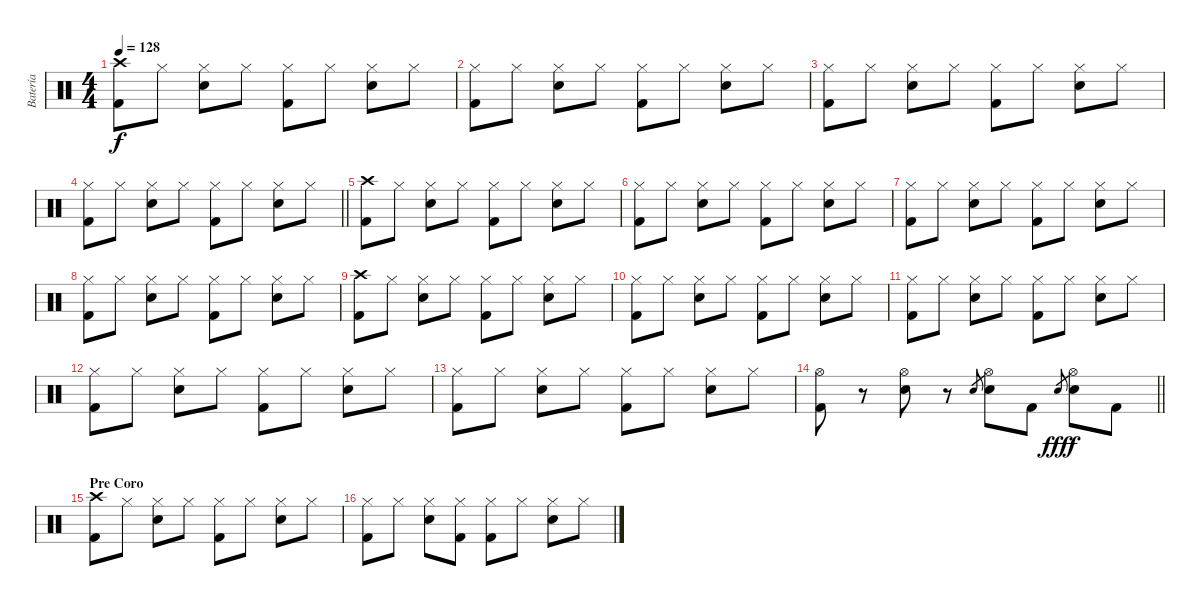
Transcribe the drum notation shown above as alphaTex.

\track ("Batería" "Batería") {instrument percussion}
\staff {score}
\articulation defaults
\ts (4 4)
\tempo 128
\clef neutral
\ks c
("Crash high (hit)" "Kick (hit) 2").8{dy f} "Hi-Hat (closed)".8 ("Hi-Hat (closed)" "Electric Snare (hit)").8 "Hi-Hat (closed)".8 ("Hi-Hat (closed)" "Kick (hit) 2").8 "Hi-Hat (closed)".8 ("Hi-Hat (closed)" "Electric Snare (hit)").8 "Hi-Hat (closed)".8 |
("Hi-Hat (closed)" "Kick (hit) 2").8 "Hi-Hat (closed)".8 ("Hi-Hat (closed)" "Electric Snare (hit)").8 "Hi-Hat (closed)".8 ("Hi-Hat (closed)" "Kick (hit) 2").8 "Hi-Hat (closed)".8 ("Hi-Hat (closed)" "Electric Snare (hit)").8 "Hi-Hat (closed)".8 |
("Hi-Hat (closed)" "Kick (hit) 2").8 "Hi-Hat (closed)".8 ("Hi-Hat (closed)" "Electric Snare (hit)").8 "Hi-Hat (closed)".8 ("Hi-Hat (closed)" "Kick (hit) 2").8 "Hi-Hat (closed)".8 ("Hi-Hat (closed)" "Electric Snare (hit)").8 "Hi-Hat (closed)".8 |
\barLineRight lightlight
("Hi-Hat (closed)" "Kick (hit) 2").8 "Hi-Hat (closed)".8 ("Hi-Hat (closed)" "Electric Snare (hit)").8 "Hi-Hat (closed)".8 ("Hi-Hat (closed)" "Kick (hit) 2").8 "Hi-Hat (closed)".8 ("Hi-Hat (closed)" "Electric Snare (hit)").8 "Hi-Hat (closed)".8 |
("Crash high (hit)" "Kick (hit) 2").8 "Hi-Hat (closed)".8 ("Hi-Hat (closed)" "Electric Snare (hit)").8 "Hi-Hat (closed)".8 ("Hi-Hat (closed)" "Kick (hit) 2").8 "Hi-Hat (closed)".8 ("Hi-Hat (closed)" "Electric Snare (hit)").8 "Hi-Hat (closed)".8 |
("Hi-Hat (closed)" "Kick (hit) 2").8 "Hi-Hat (closed)".8 ("Hi-Hat (closed)" "Electric Snare (hit)").8 "Hi-Hat (closed)".8 ("Hi-Hat (closed)" "Kick (hit) 2").8 "Hi-Hat (closed)".8 ("Hi-Hat (closed)" "Electric Snare (hit)").8 "Hi-Hat (closed)".8 |
("Hi-Hat (closed)" "Kick (hit) 2").8 "Hi-Hat (closed)".8 ("Hi-Hat (closed)" "Electric Snare (hit)").8 "Hi-Hat (closed)".8 ("Hi-Hat (closed)" "Kick (hit) 2").8 "Hi-Hat (closed)".8 ("Hi-Hat (closed)" "Electric Snare (hit)").8 "Hi-Hat (closed)".8 |
("Hi-Hat (closed)" "Kick (hit) 2").8 "Hi-Hat (closed)".8 ("Hi-Hat (closed)" "Electric Snare (hit)").8 "Hi-Hat (closed)".8 ("Hi-Hat (closed)" "Kick (hit) 2").8 "Hi-Hat (closed)".8 ("Hi-Hat (closed)" "Electric Snare (hit)").8 "Hi-Hat (closed)".8 |
("Crash high (hit)" "Kick (hit) 2").8 "Hi-Hat (closed)".8 ("Hi-Hat (closed)" "Electric Snare (hit)").8 "Hi-Hat (closed)".8 ("Hi-Hat (closed)" "Kick (hit) 2").8 "Hi-Hat (closed)".8 ("Hi-Hat (closed)" "Electric Snare (hit)").8 "Hi-Hat (closed)".8 |
("Hi-Hat (closed)" "Kick (hit) 2").8 "Hi-Hat (closed)".8 ("Hi-Hat (closed)" "Electric Snare (hit)").8 "Hi-Hat (closed)".8 ("Hi-Hat (closed)" "Kick (hit) 2").8 "Hi-Hat (closed)".8 ("Hi-Hat (closed)" "Electric Snare (hit)").8 "Hi-Hat (closed)".8 |
("Hi-Hat (closed)" "Kick (hit) 2").8 "Hi-Hat (closed)".8 ("Hi-Hat (closed)" "Electric Snare (hit)").8 "Hi-Hat (closed)".8 ("Hi-Hat (closed)" "Kick (hit) 2").8 "Hi-Hat (closed)".8 ("Hi-Hat (closed)" "Electric Snare (hit)").8 "Hi-Hat (closed)".8 |
("Hi-Hat (closed)" "Kick (hit) 2").8 "Hi-Hat (closed)".8 ("Hi-Hat (closed)" "Electric Snare (hit)").8 "Hi-Hat (closed)".8 ("Hi-Hat (closed)" "Kick (hit) 2").8 "Hi-Hat (closed)".8 ("Hi-Hat (closed)" "Electric Snare (hit)").8 "Hi-Hat (closed)".8 |
("Hi-Hat (closed)" "Kick (hit) 2").8 "Hi-Hat (closed)".8 ("Hi-Hat (closed)" "Electric Snare (hit)").8 "Hi-Hat (closed)".8 ("Hi-Hat (closed)" "Kick (hit) 2").8 "Hi-Hat (closed)".8 ("Hi-Hat (closed)" "Electric Snare (hit)").8 "Hi-Hat (closed)".8 |
\barLineRight lightlight
("Hi-Hat (open)" "Kick (hit) 2").8 r.8 ("Hi-Hat (open)" "Electric Snare (hit)").8 r.8 "Electric Snare (hit)".8{gr} ("Hi-Hat (open)" "Electric Snare (hit)").8 "Kick (hit) 2".8 "Electric Snare (hit)".8{gr dy fff} ("Hi-Hat (open)" "Electric Snare (hit)").8{dy f} "Kick (hit) 2".8 |
\section ("" "Pre Coro")
("Kick (hit) 2" "Crash high (hit)").8 "Hi-Hat (closed)".8 ("Hi-Hat (closed)" "Electric Snare (hit)").8 "Hi-Hat (closed)".8 ("Hi-Hat (closed)" "Kick (hit) 2").8 "Hi-Hat (closed)".8 ("Hi-Hat (closed)" "Electric Snare (hit)").8 "Hi-Hat (closed)".8 |
("Hi-Hat (closed)" "Kick (hit) 2").8 "Hi-Hat (closed)".8 ("Hi-Hat (closed)" "Electric Snare (hit)").8 ("Hi-Hat (closed)" "Kick (hit) 2").8 ("Hi-Hat (closed)" "Kick (hit) 2").8 "Hi-Hat (closed)".8 ("Hi-Hat (closed)" "Electric Snare (hit)").8 "Hi-Hat (closed)".8
